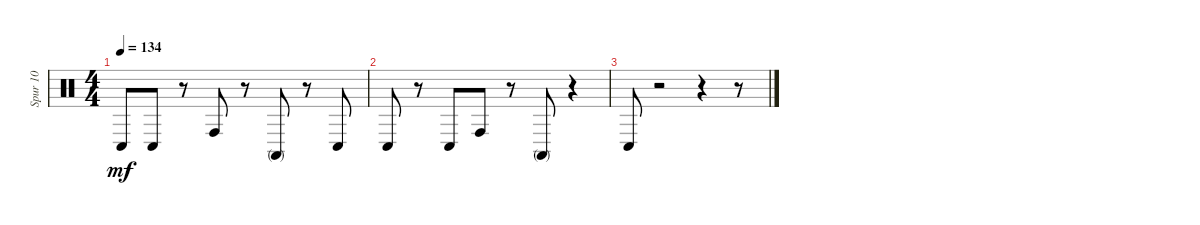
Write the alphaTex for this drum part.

\track ("Spur 10" "Spur 10") {instrument percussion}
\staff {score}
\articulation defaults
\ts (4 4)
\tempo 134
\clef neutral
\ks c "Conga low (hit)".8{dy mf} "Conga low (hit)".8
r.8 "Conga high (hit)".8 r.8 "Conga high (mute)".8 r.8 "Conga low (hit)".8 |
"Conga low (hit)".8 r.8 "Conga low (hit)".8 "Conga high (hit)".8 r.8 "Conga high (mute)".8 r.4 |
"Conga low (hit)".8 r.2 r.4 r.8
